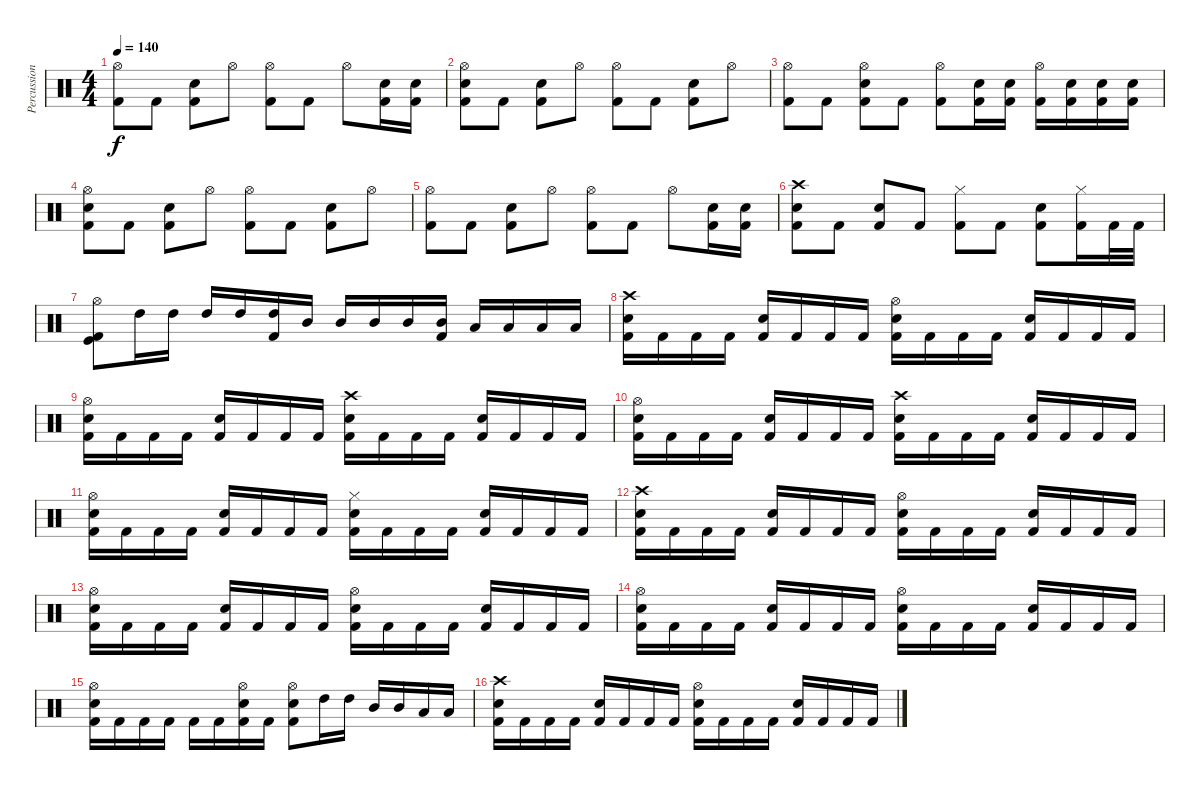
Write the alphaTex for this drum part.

\track ("Percussions" "Percussion") {instrument percussion}
\staff {score}
\articulation defaults
\ts (4 4)
\tempo 140
\clef neutral
\ks c
("Hi-Hat (open)" "Kick (hit) 2").8{dy f} "Kick (hit) 2".8 ("Snare (hit) 2" "Kick (hit) 2").8 "Hi-Hat (open)".8 ("Hi-Hat (open)" "Kick (hit) 2").8 "Kick (hit) 2".8 "Hi-Hat (open)".8 ("Snare (hit) 2" "Kick (hit) 2").16 ("Snare (hit) 2" "Kick (hit) 2").16 |
("Hi-Hat (open)" "Snare (hit) 2" "Kick (hit) 2").8 "Kick (hit) 2".8 ("Snare (hit) 2" "Kick (hit) 2").8 "Hi-Hat (open)".8 ("Hi-Hat (open)" "Kick (hit) 2").8 "Kick (hit) 2".8 ("Snare (hit) 2" "Kick (hit) 2").8 "Hi-Hat (open)".8 |
("Hi-Hat (open)" "Kick (hit) 2").8 "Kick (hit) 2".8 ("Hi-Hat (open)" "Snare (hit) 2" "Kick (hit) 2").8 "Kick (hit) 2".8 ("Hi-Hat (open)" "Kick (hit) 2").8 ("Snare (hit) 2" "Kick (hit) 2").16 ("Snare (hit) 2" "Kick (hit) 2").16 ("Hi-Hat (open)" "Kick (hit) 2").16 ("Snare (hit) 2" "Kick (hit) 2").16 ("Snare (hit) 2" "Kick (hit) 2").16 ("Snare (hit) 2" "Kick (hit) 2").16 |
("Hi-Hat (open)" "Snare (hit) 2" "Kick (hit) 2").8 "Kick (hit) 2".8 ("Snare (hit) 2" "Kick (hit) 2").8 "Hi-Hat (open)".8 ("Hi-Hat (open)" "Kick (hit) 2").8 "Kick (hit) 2".8 ("Snare (hit) 2" "Kick (hit) 2").8 "Hi-Hat (open)".8 |
("Hi-Hat (open)" "Kick (hit) 2").8 "Kick (hit) 2".8 ("Snare (hit) 2" "Kick (hit) 2").8 "Hi-Hat (open)".8 ("Hi-Hat (open)" "Kick (hit) 2").8 "Kick (hit) 2".8 "Hi-Hat (open)".8 ("Snare (hit) 2" "Kick (hit) 2").16 ("Snare (hit) 2" "Kick (hit) 2").16 |
("Crash high (hit)" "Snare (hit) 2" "Kick (hit) 2").8 "Kick (hit) 2".8 ("Snare (hit) 2" "Kick (hit) 2").8 "Kick (hit) 2".8 ("Hi-Hat (closed)" "Kick (hit) 2").8 "Kick (hit) 2".8 ("Snare (hit) 2" "Kick (hit) 2").8 ("Hi-Hat (closed)" "Kick (hit) 2").16 "Kick (hit) 2".32 "Kick (hit) 2".32 |
("Hi-Hat (open)" "Kick (hit)" "Kick (hit) 2").8 "High Tom (hit)".16 "High Tom (hit)".16 "High Tom (hit)".16 "High Tom (hit)".16 ("High Tom (hit)" "Kick (hit) 2").16 "Mid Tom (hit)".16 "Mid Tom (hit)".16 "Mid Tom (hit)".16 "Mid Tom (hit)".16 ("Mid Tom (hit)" "Kick (hit) 2").16 "Low Tom (hit)".16 "Low Tom (hit)".16 "Low Tom (hit)".16 "Low Tom (hit)".16 |
("Crash high (hit)" "Snare (hit) 2" "Kick (hit) 2").16 "Kick (hit) 2".16 "Kick (hit) 2".16 "Kick (hit) 2".16 ("Snare (hit) 2" "Kick (hit) 2").16 "Kick (hit) 2".16 "Kick (hit) 2".16 "Kick (hit) 2".16 ("Hi-Hat (open)" "Snare (hit) 2" "Kick (hit) 2").16 "Kick (hit) 2".16 "Kick (hit) 2".16 "Kick (hit) 2".16 ("Snare (hit) 2" "Kick (hit) 2").16 "Kick (hit) 2".16 "Kick (hit) 2".16 "Kick (hit) 2".16 |
("Hi-Hat (open)" "Snare (hit) 2" "Kick (hit) 2").16 "Kick (hit) 2".16 "Kick (hit) 2".16 "Kick (hit) 2".16 ("Snare (hit) 2" "Kick (hit) 2").16 "Kick (hit) 2".16 "Kick (hit) 2".16 "Kick (hit) 2".16 ("Crash high (hit)" "Snare (hit) 2" "Kick (hit) 2").16 "Kick (hit) 2".16 "Kick (hit) 2".16 "Kick (hit) 2".16 ("Snare (hit) 2" "Kick (hit) 2").16 "Kick (hit) 2".16 "Kick (hit) 2".16 "Kick (hit) 2".16 |
("Hi-Hat (open)" "Snare (hit) 2" "Kick (hit) 2").16 "Kick (hit) 2".16 "Kick (hit) 2".16 "Kick (hit) 2".16 ("Snare (hit) 2" "Kick (hit) 2").16 "Kick (hit) 2".16 "Kick (hit) 2".16 "Kick (hit) 2".16 ("Crash high (hit)" "Snare (hit) 2" "Kick (hit) 2").16 "Kick (hit) 2".16 "Kick (hit) 2".16 "Kick (hit) 2".16 ("Snare (hit) 2" "Kick (hit) 2").16 "Kick (hit) 2".16 "Kick (hit) 2".16 "Kick (hit) 2".16 |
("Hi-Hat (open)" "Snare (hit) 2" "Kick (hit) 2").16 "Kick (hit) 2".16 "Kick (hit) 2".16 "Kick (hit) 2".16 ("Snare (hit) 2" "Kick (hit) 2").16 "Kick (hit) 2".16 "Kick (hit) 2".16 "Kick (hit) 2".16 ("Hi-Hat (closed)" "Snare (hit) 2" "Kick (hit) 2").16 "Kick (hit) 2".16 "Kick (hit) 2".16 "Kick (hit) 2".16 ("Snare (hit) 2" "Kick (hit) 2").16 "Kick (hit) 2".16 "Kick (hit) 2".16 "Kick (hit) 2".16 |
("Crash high (hit)" "Snare (hit) 2" "Kick (hit) 2").16 "Kick (hit) 2".16 "Kick (hit) 2".16 "Kick (hit) 2".16 ("Snare (hit) 2" "Kick (hit) 2").16 "Kick (hit) 2".16 "Kick (hit) 2".16 "Kick (hit) 2".16 ("Hi-Hat (open)" "Snare (hit) 2" "Kick (hit) 2").16 "Kick (hit) 2".16 "Kick (hit) 2".16 "Kick (hit) 2".16 ("Snare (hit) 2" "Kick (hit) 2").16 "Kick (hit) 2".16 "Kick (hit) 2".16 "Kick (hit) 2".16 |
("Hi-Hat (open)" "Snare (hit) 2" "Kick (hit) 2").16 "Kick (hit) 2".16 "Kick (hit) 2".16 "Kick (hit) 2".16 ("Snare (hit) 2" "Kick (hit) 2").16 "Kick (hit) 2".16 "Kick (hit) 2".16 "Kick (hit) 2".16 ("Hi-Hat (open)" "Snare (hit) 2" "Kick (hit) 2").16 "Kick (hit) 2".16 "Kick (hit) 2".16 "Kick (hit) 2".16 ("Snare (hit) 2" "Kick (hit) 2").16 "Kick (hit) 2".16 "Kick (hit) 2".16 "Kick (hit) 2".16 |
("Hi-Hat (open)" "Snare (hit) 2" "Kick (hit) 2").16 "Kick (hit) 2".16 "Kick (hit) 2".16 "Kick (hit) 2".16 ("Snare (hit) 2" "Kick (hit) 2").16 "Kick (hit) 2".16 "Kick (hit) 2".16 "Kick (hit) 2".16 ("Hi-Hat (open)" "Snare (hit) 2" "Kick (hit) 2").16 "Kick (hit) 2".16 "Kick (hit) 2".16 "Kick (hit) 2".16 ("Snare (hit) 2" "Kick (hit) 2").16 "Kick (hit) 2".16 "Kick (hit) 2".16 "Kick (hit) 2".16 |
("Hi-Hat (open)" "Snare (hit) 2" "Kick (hit) 2").16 "Kick (hit) 2".16 "Kick (hit) 2".16 "Kick (hit) 2".16 "Kick (hit) 2".16 "Kick (hit) 2".16 ("Hi-Hat (open)" "Snare (hit) 2" "Kick (hit) 2").16 "Kick (hit) 2".16 ("Hi-Hat (open)" "Snare (hit) 2" "Kick (hit) 2").8 "High Tom (hit)".16 "High Tom (hit)".16 "Mid Tom (hit)".16 "Mid Tom (hit)".16 "Low Tom (hit)".16 "Low Tom (hit)".16 |
("Crash high (hit)" "Snare (hit) 2" "Kick (hit) 2").16 "Kick (hit) 2".16 "Kick (hit) 2".16 "Kick (hit) 2".16 ("Snare (hit) 2" "Kick (hit) 2").16 "Kick (hit) 2".16 "Kick (hit) 2".16 "Kick (hit) 2".16 ("Hi-Hat (open)" "Snare (hit) 2" "Kick (hit) 2").16 "Kick (hit) 2".16 "Kick (hit) 2".16 "Kick (hit) 2".16 ("Snare (hit) 2" "Kick (hit) 2").16 "Kick (hit) 2".16 "Kick (hit) 2".16 "Kick (hit) 2".16
